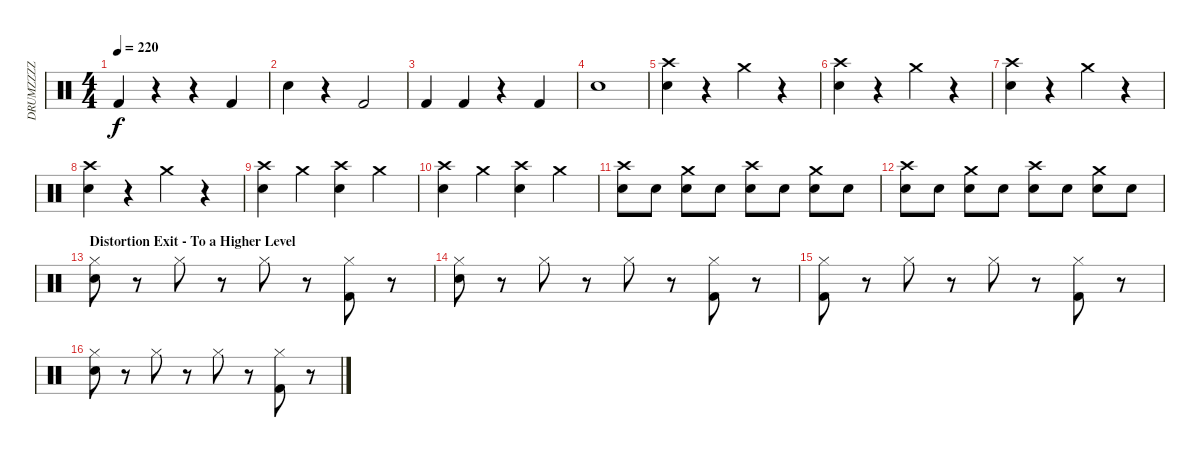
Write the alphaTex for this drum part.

\track ("DRUMZZZZ" "DRUMZZZZ") {instrument percussion}
\staff {score}
\articulation defaults
\ts (4 4)
\tempo 220
\clef neutral
\ks c "Kick (hit) 2".4{dy f}
r.4 r.4 "Kick (hit) 2".4 |
"Snare (hit) 2".4 r.4 "Kick (hit) 2".2 |
"Kick (hit) 2".4 "Kick (hit) 2".4 r.4 "Kick (hit) 2".4 |
"Snare (hit) 2".1 |
("Snare (hit) 2" "Crash high (hit)").4 r.4 "Crash medium (hit)".4 r.4 |
("Snare (hit) 2" "Crash high (hit)").4 r.4 "Crash medium (hit)".4 r.4 |
("Snare (hit) 2" "Crash high (hit)").4 r.4 "Crash medium (hit)".4 r.4 |
("Snare (hit) 2" "Crash high (hit)").4 r.4 "Crash medium (hit)".4 r.4 |
("Snare (hit) 2" "Crash high (hit)").4 "Crash medium (hit)".4 ("Snare (hit) 2" "Crash high (hit)").4 "Crash medium (hit)".4 |
("Snare (hit) 2" "Crash high (hit)").4 "Crash medium (hit)".4 ("Snare (hit) 2" "Crash high (hit)").4 "Crash medium (hit)".4 |
("Snare (hit) 2" "Crash high (hit)").8 "Snare (hit) 2".8 ("Snare (hit) 2" "Crash medium (hit)").8 "Snare (hit) 2".8 ("Snare (hit) 2" "Crash high (hit)").8 "Snare (hit) 2".8 ("Snare (hit) 2" "Crash medium (hit)").8 "Snare (hit) 2".8 |
("Snare (hit) 2" "Crash high (hit)").8 "Snare (hit) 2".8 ("Snare (hit) 2" "Crash medium (hit)").8 "Snare (hit) 2".8 ("Snare (hit) 2" "Crash high (hit)").8 "Snare (hit) 2".8 ("Snare (hit) 2" "Crash medium (hit)").8 "Snare (hit) 2".8 |
\section ("" "Distortion Exit - To a Higher Level")
("Hi-Hat (closed)" "Snare (hit) 2").8 r.8 "Hi-Hat (closed)".8 r.8 "Hi-Hat (closed)".8 r.8 ("Hi-Hat (closed)" "Kick (hit) 2").8 r.8 |
("Hi-Hat (closed)" "Snare (hit) 2").8 r.8 "Hi-Hat (closed)".8 r.8 "Hi-Hat (closed)".8 r.8 ("Hi-Hat (closed)" "Kick (hit) 2").8 r.8 |
("Hi-Hat (closed)" "Kick (hit) 2").8 r.8 "Hi-Hat (closed)".8 r.8 "Hi-Hat (closed)".8 r.8 ("Hi-Hat (closed)" "Kick (hit) 2").8 r.8 |
("Hi-Hat (closed)" "Snare (hit) 2").8 r.8 "Hi-Hat (closed)".8 r.8 "Hi-Hat (closed)".8 r.8 ("Hi-Hat (closed)" "Kick (hit) 2").8 r.8
